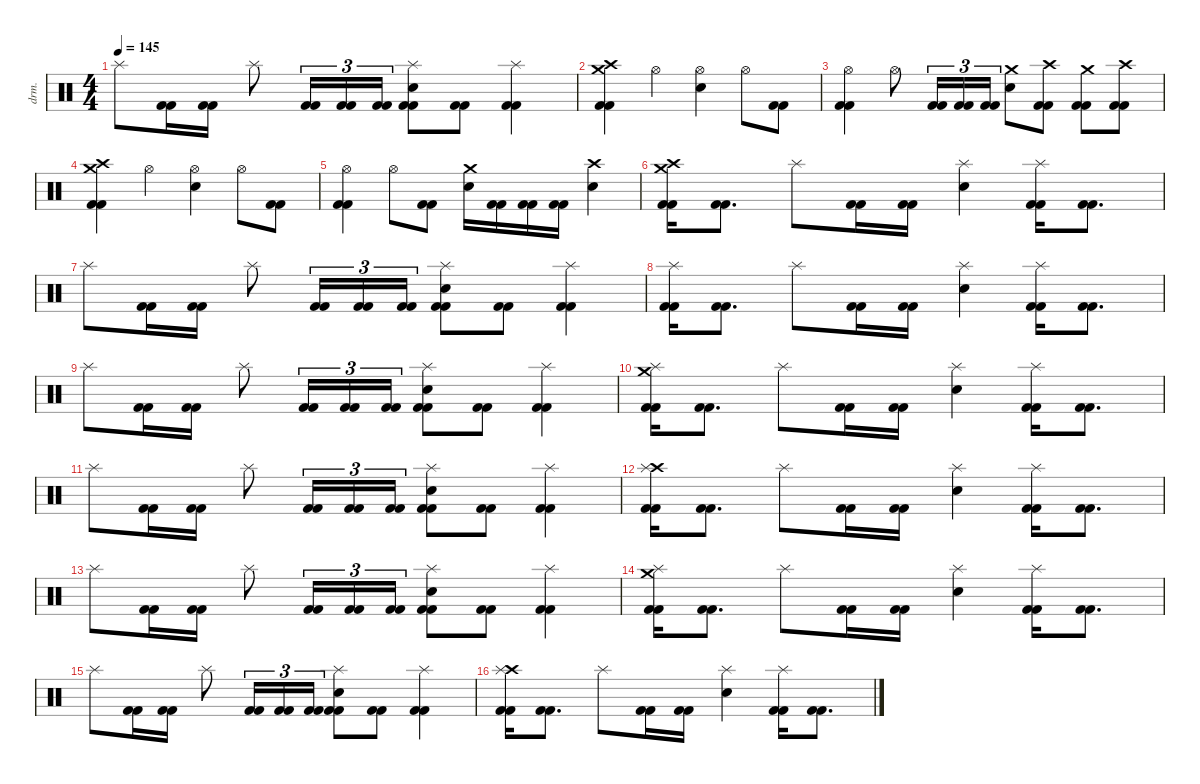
\defaultSystemsLayout 4
\hideDynamics
\bracketExtendMode nobrackets
\otherSystemsTrackNameOrientation horizontal
\track ("Chris Adler" "drm.") {instrument percussion}
\staff {score}
\articulation defaults
\ts (4 4)
\tempo 145
\clef neutral
\ks c "Splash (hit)".8{dy f}
("Kick (hit) 2" "Kick (hit) 2").16 ("Kick (hit) 2" "Kick (hit) 2").16 "Splash (hit)".8 ("Kick (hit) 2" "Kick (hit) 2").16{tu (3 2)} ("Kick (hit) 2" "Kick (hit) 2").16{tu (3 2)} ("Kick (hit) 2" "Kick (hit) 2").16{tu (3 2)} ("Splash (hit)" "Snare (hit) 2" "Kick (hit) 2" "Kick (hit) 2").8 ("Kick (hit) 2" "Kick (hit) 2").8 ("Splash (hit)" "Kick (hit) 2" "Kick (hit) 2").4 |
("Crash medium (hit)" "Crash high (hit)" "Kick (hit) 2" "Kick (hit) 2").4 "Hi-Hat (open)".4 ("Hi-Hat (open)" "Snare (hit) 2").4 "Hi-Hat (open)".8 ("Kick (hit) 2" "Kick (hit) 2").8 |
("Hi-Hat (open)" "Kick (hit) 2" "Kick (hit) 2").4 "Hi-Hat (open)".8 ("Kick (hit) 2" "Kick (hit) 2").16{tu (3 2)} ("Kick (hit) 2" "Kick (hit) 2").16{tu (3 2)} ("Kick (hit) 2" "Kick (hit) 2").16{tu (3 2)} ("Crash medium (hit)" "Snare (hit) 2").8 ("Crash high (hit)" "Kick (hit) 2" "Kick (hit) 2").8 ("Crash medium (hit)" "Kick (hit) 2" "Kick (hit) 2").8 ("Crash high (hit)" "Kick (hit) 2" "Kick (hit) 2").8 |
("Crash medium (hit)" "Crash high (hit)" "Kick (hit) 2" "Kick (hit) 2").4 "Hi-Hat (open)".4 ("Hi-Hat (open)" "Snare (hit) 2").4 "Hi-Hat (open)".8 ("Kick (hit) 2" "Kick (hit) 2").8 |
("Hi-Hat (open)" "Kick (hit) 2" "Kick (hit) 2").4 "Hi-Hat (open)".8 ("Kick (hit) 2" "Kick (hit) 2").8 ("Crash medium (hit)" "Snare (hit) 2").16 ("Kick (hit) 2" "Kick (hit) 2").16 ("Kick (hit) 2" "Kick (hit) 2").16 ("Kick (hit) 2" "Kick (hit) 2").16 ("Crash high (hit)" "Snare (hit) 2").4 |
("Crash medium (hit)" "Crash high (hit)" "Kick (hit) 2" "Kick (hit) 2").16 ("Kick (hit) 2" "Kick (hit) 2").8{d} "Splash (hit)".8 ("Kick (hit) 2" "Kick (hit) 2").16 ("Kick (hit) 2" "Kick (hit) 2").16 ("Splash (hit)" "Snare (hit) 2").4 ("Splash (hit)" "Kick (hit) 2" "Kick (hit) 2").16 ("Kick (hit) 2" "Kick (hit) 2").8{d} |
"Splash (hit)".8 ("Kick (hit) 2" "Kick (hit) 2").16 ("Kick (hit) 2" "Kick (hit) 2").16 "Splash (hit)".8 ("Kick (hit) 2" "Kick (hit) 2").16{tu (3 2)} ("Kick (hit) 2" "Kick (hit) 2").16{tu (3 2)} ("Kick (hit) 2" "Kick (hit) 2").16{tu (3 2)} ("Splash (hit)" "Snare (hit) 2" "Kick (hit) 2" "Kick (hit) 2").8 ("Kick (hit) 2" "Kick (hit) 2").8 ("Splash (hit)" "Kick (hit) 2" "Kick (hit) 2").4 |
("Splash (hit)" "Kick (hit) 2" "Kick (hit) 2").16 ("Kick (hit) 2" "Kick (hit) 2").8{d} "Splash (hit)".8 ("Kick (hit) 2" "Kick (hit) 2").16 ("Kick (hit) 2" "Kick (hit) 2").16 ("Splash (hit)" "Snare (hit) 2").4 ("Splash (hit)" "Kick (hit) 2" "Kick (hit) 2").16 ("Kick (hit) 2" "Kick (hit) 2").8{d} |
"Splash (hit)".8 ("Kick (hit) 2" "Kick (hit) 2").16 ("Kick (hit) 2" "Kick (hit) 2").16 "Splash (hit)".8 ("Kick (hit) 2" "Kick (hit) 2").16{tu (3 2)} ("Kick (hit) 2" "Kick (hit) 2").16{tu (3 2)} ("Kick (hit) 2" "Kick (hit) 2").16{tu (3 2)} ("Splash (hit)" "Snare (hit) 2" "Kick (hit) 2" "Kick (hit) 2").8 ("Kick (hit) 2" "Kick (hit) 2").8 ("Splash (hit)" "Kick (hit) 2" "Kick (hit) 2").4 |
("Crash medium (hit)" "Splash (hit)" "Kick (hit) 2" "Kick (hit) 2").16 ("Kick (hit) 2" "Kick (hit) 2").8{d} "Splash (hit)".8 ("Kick (hit) 2" "Kick (hit) 2").16 ("Kick (hit) 2" "Kick (hit) 2").16 ("Splash (hit)" "Snare (hit) 2").4 ("Splash (hit)" "Kick (hit) 2" "Kick (hit) 2").16 ("Kick (hit) 2" "Kick (hit) 2").8{d} |
"Splash (hit)".8 ("Kick (hit) 2" "Kick (hit) 2").16 ("Kick (hit) 2" "Kick (hit) 2").16 "Splash (hit)".8 ("Kick (hit) 2" "Kick (hit) 2").16{tu (3 2)} ("Kick (hit) 2" "Kick (hit) 2").16{tu (3 2)} ("Kick (hit) 2" "Kick (hit) 2").16{tu (3 2)} ("Splash (hit)" "Snare (hit) 2" "Kick (hit) 2" "Kick (hit) 2").8 ("Kick (hit) 2" "Kick (hit) 2").8 ("Splash (hit)" "Kick (hit) 2" "Kick (hit) 2").4 |
("Crash high (hit)" "Splash (hit)" "Kick (hit) 2" "Kick (hit) 2").16 ("Kick (hit) 2" "Kick (hit) 2").8{d} "Splash (hit)".8 ("Kick (hit) 2" "Kick (hit) 2").16 ("Kick (hit) 2" "Kick (hit) 2").16 ("Splash (hit)" "Snare (hit) 2").4 ("Splash (hit)" "Kick (hit) 2" "Kick (hit) 2").16 ("Kick (hit) 2" "Kick (hit) 2").8{d} |
"Splash (hit)".8 ("Kick (hit) 2" "Kick (hit) 2").16 ("Kick (hit) 2" "Kick (hit) 2").16 "Splash (hit)".8 ("Kick (hit) 2" "Kick (hit) 2").16{tu (3 2)} ("Kick (hit) 2" "Kick (hit) 2").16{tu (3 2)} ("Kick (hit) 2" "Kick (hit) 2").16{tu (3 2)} ("Splash (hit)" "Snare (hit) 2" "Kick (hit) 2" "Kick (hit) 2").8 ("Kick (hit) 2" "Kick (hit) 2").8 ("Splash (hit)" "Kick (hit) 2" "Kick (hit) 2").4 |
("Crash medium (hit)" "Splash (hit)" "Kick (hit) 2" "Kick (hit) 2").16 ("Kick (hit) 2" "Kick (hit) 2").8{d} "Splash (hit)".8 ("Kick (hit) 2" "Kick (hit) 2").16 ("Kick (hit) 2" "Kick (hit) 2").16 ("Splash (hit)" "Snare (hit) 2").4 ("Splash (hit)" "Kick (hit) 2" "Kick (hit) 2").16 ("Kick (hit) 2" "Kick (hit) 2").8{d} |
"Splash (hit)".8 ("Kick (hit) 2" "Kick (hit) 2").16 ("Kick (hit) 2" "Kick (hit) 2").16 "Splash (hit)".8 ("Kick (hit) 2" "Kick (hit) 2").16{tu (3 2)} ("Kick (hit) 2" "Kick (hit) 2").16{tu (3 2)} ("Kick (hit) 2" "Kick (hit) 2").16{tu (3 2)} ("Splash (hit)" "Snare (hit) 2" "Kick (hit) 2" "Kick (hit) 2").8 ("Kick (hit) 2" "Kick (hit) 2").8 ("Splash (hit)" "Kick (hit) 2" "Kick (hit) 2").4 |
("Crash high (hit)" "Splash (hit)" "Kick (hit) 2" "Kick (hit) 2").16 ("Kick (hit) 2" "Kick (hit) 2").8{d} "Splash (hit)".8 ("Kick (hit) 2" "Kick (hit) 2").16 ("Kick (hit) 2" "Kick (hit) 2").16 ("Splash (hit)" "Snare (hit) 2").4 ("Splash (hit)" "Kick (hit) 2" "Kick (hit) 2").16 ("Kick (hit) 2" "Kick (hit) 2").8{d}
